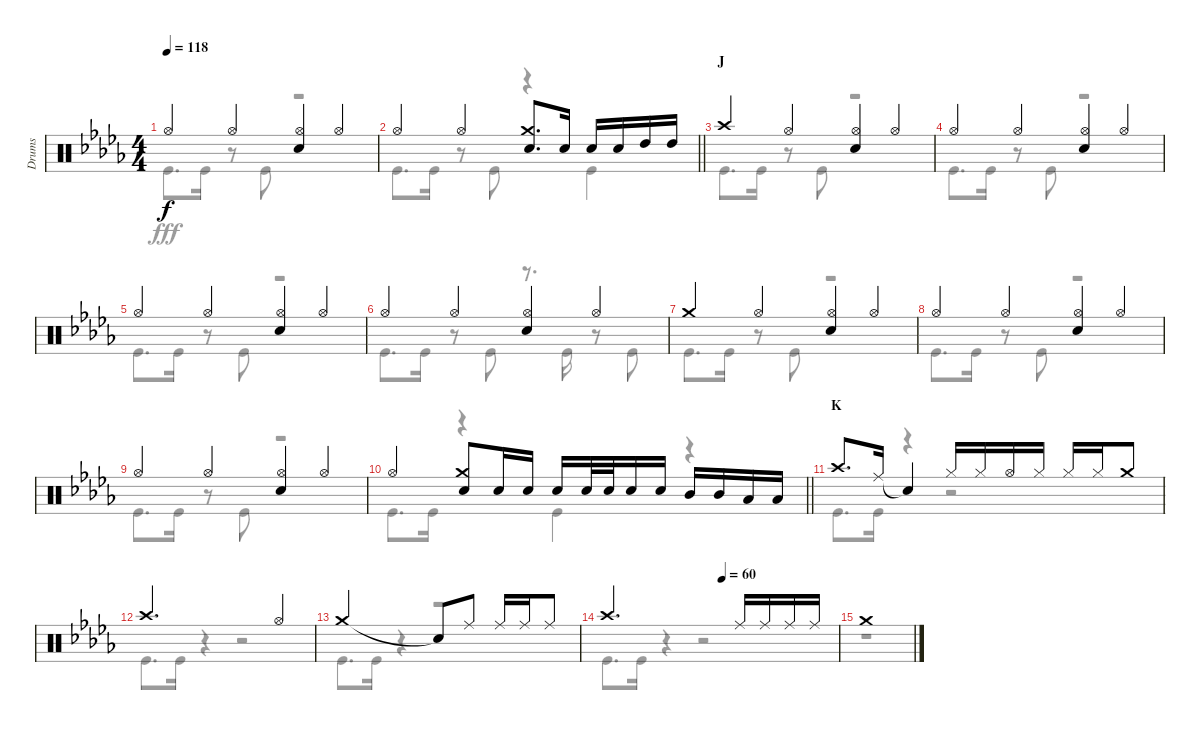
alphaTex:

\track ("Drums" "Drums") {instrument percussion}
\staff {score}
\articulation defaults
\voice
\ts (4 4)
\tempo 118
\clef neutral
\ks db "Hi-Hat (open)".4{dy f} "Hi-Hat (open)".4
("Hi-Hat (open)" "Snare (hit) 2").4 "Hi-Hat (open)".4 |
\barLineRight lightlight "Hi-Hat (open)".4 "Hi-Hat (open)".4
("Crash medium (hit)" "Snare (hit) 2").8{d} "Snare (hit) 2".16 "Snare (hit) 2".16 "Snare (hit) 2".16 "High Tom (hit)".16 "High Tom (hit)".16 |
\section ("" "J")
"Crash high (hit)".4 "Hi-Hat (open)".4 ("Hi-Hat (open)" "Snare (hit) 2").4 "Hi-Hat (open)".4 |
"Hi-Hat (open)".4 "Hi-Hat (open)".4 ("Hi-Hat (open)" "Snare (hit) 2").4 "Hi-Hat (open)".4 |
"Hi-Hat (open)".4 "Hi-Hat (open)".4 ("Hi-Hat (open)" "Snare (hit) 2").4 "Hi-Hat (open)".4 |
"Hi-Hat (open)".4 "Hi-Hat (open)".4 ("Hi-Hat (open)" "Snare (hit) 2").4 "Hi-Hat (open)".4 |
"Crash medium (hit)".4 "Hi-Hat (open)".4 ("Hi-Hat (open)" "Snare (hit) 2").4 "Hi-Hat (open)".4 |
"Hi-Hat (open)".4 "Hi-Hat (open)".4 ("Hi-Hat (open)" "Snare (hit) 2").4 "Hi-Hat (open)".4 |
"Hi-Hat (open)".4 "Hi-Hat (open)".4 ("Hi-Hat (open)" "Snare (hit) 2").4 "Hi-Hat (open)".4 |
\barLineRight lightlight "Hi-Hat (open)".4
("Crash medium (hit)" "Snare (hit) 2").8 "Snare (hit) 2".16 "Snare (hit) 2".16 "Snare (hit) 2".16 "Snare (hit) 2".32 "Snare (hit) 2".32 "Snare (hit) 2".16 "Snare (hit) 2".16 "Mid Tom (hit)".16 "Mid Tom (hit)".16 "Low Tom (hit)".16 "Low Tom (hit)".16 |
\section ("" "K")
"Crash high (hit)".8{d} "Ride (middle)".16 "Snare (hit)"{t}.4 "Hi-Hat (closed)".16 "Hi-Hat (closed)".16 "Hi-Hat (open)".16 "Hi-Hat (closed)".16 "Hi-Hat (closed)".16 "Hi-Hat (closed)".16 "Crash medium (hit)".8 |
"Crash high (hit)".2{d} "Hi-Hat (open)".4 |
"Crash medium (hit)".2 "Snare (hit)"{t}.8 "Ride (middle)".8 "Ride (middle)".16 "Ride (middle)".16 "Ride (middle)".8 |
\tempo (60 0.5)
"Crash high (hit)".2{d} "Ride (middle)".16 "Ride (middle)".16 "Ride (middle)".16 "Ride (middle)".16 |
"Crash medium (hit)".1
\voice
\clef neutral
\ottava regular
\simile none
\ks db "Kick (hit)".8{d dy fff} "Kick (hit)".16
r.8 "Kick (hit)".8 r.2 |
\barLineRight lightlight "Kick (hit)".8{d} "Kick (hit)".16
r.8 "Kick (hit)".8 r.4 "Kick (hit)".4 |
"Kick (hit)".8{d} "Kick (hit)".16 r.8 "Kick (hit)".8 r.2 |
"Kick (hit)".8{d} "Kick (hit)".16 r.8 "Kick (hit)".8 r.2 |
"Kick (hit)".8{d} "Kick (hit)".16 r.8 "Kick (hit)".8 r.2 |
"Kick (hit)".8{d} "Kick (hit)".16 r.8 "Kick (hit)".8 r.8{d} "Kick (hit)".16 r.8 "Kick (hit)".8 |
"Kick (hit)".8{d} "Kick (hit)".16 r.8 "Kick (hit)".8 r.2 |
"Kick (hit)".8{d} "Kick (hit)".16 r.8 "Kick (hit)".8 r.2 |
"Kick (hit)".8{d} "Kick (hit)".16 r.8 "Kick (hit)".8 r.2 |
\barLineRight lightlight "Kick (hit)".8{d} "Kick (hit)".16
r.4 "Kick (hit)".4 r.4 |
"Kick (hit)".8{d} "Kick (hit)".16 r.4 r.2 |
"Kick (hit)".8{d} "Kick (hit)".16 r.4 r.2 |
"Kick (hit)".8{d} "Kick (hit)".16 r.4 r.2 |
"Kick (hit)".8{d} "Kick (hit)".16 r.4 r.2 |
r.1
